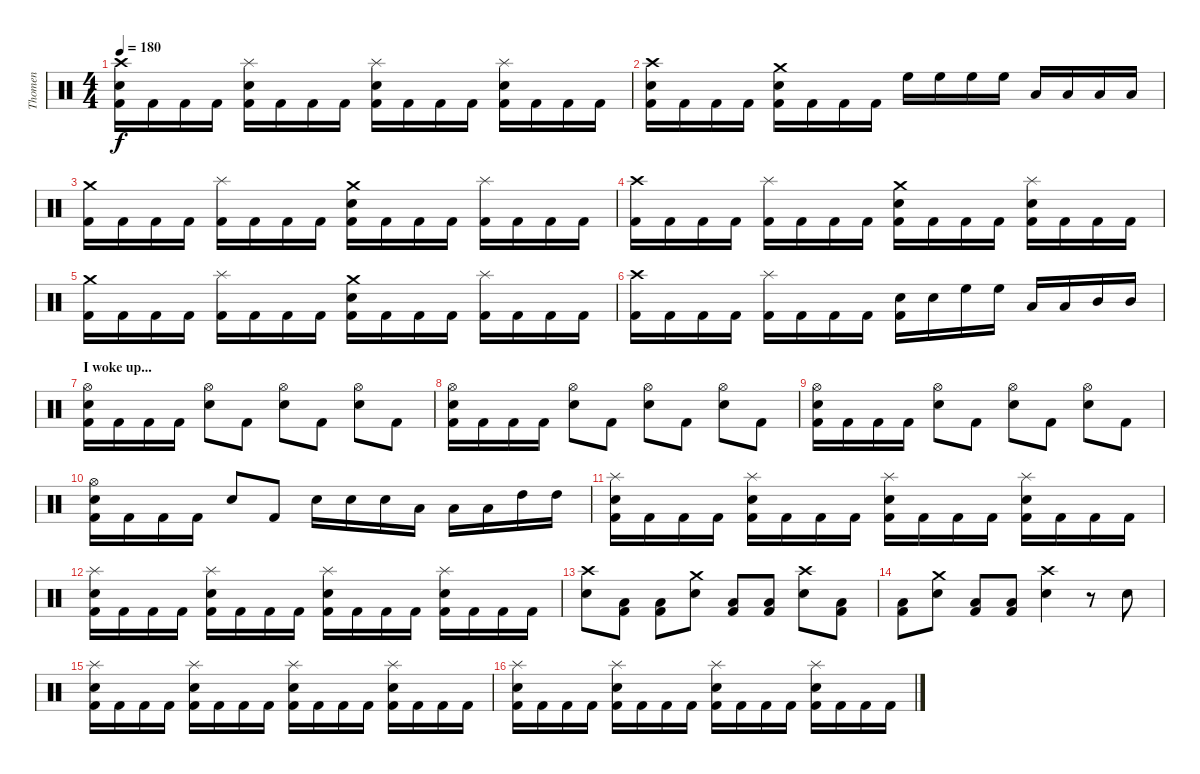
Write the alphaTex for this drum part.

\track ("Thomen" "Thomen") {instrument percussion}
\staff {score}
\articulation defaults
\ts (4 4)
\tempo 180
\clef neutral
\ks c
("Kick (hit) 2" "Electric Snare (hit)" "Crash high (hit)").16{dy f} "Kick (hit) 2".16 "Kick (hit) 2".16 "Kick (hit) 2".16 ("Kick (hit) 2" "Electric Snare (hit)" "Splash (hit)").16 "Kick (hit) 2".16 "Kick (hit) 2".16 "Kick (hit) 2".16 ("Kick (hit) 2" "Electric Snare (hit)" "Splash (hit)").16 "Kick (hit) 2".16 "Kick (hit) 2".16 "Kick (hit) 2".16 ("Kick (hit) 2" "Electric Snare (hit)" "Splash (hit)").16 "Kick (hit) 2".16 "Kick (hit) 2".16 "Kick (hit) 2".16 |
("Kick (hit) 2" "Electric Snare (hit)" "Crash high (hit)").16 "Kick (hit) 2".16 "Kick (hit) 2".16 "Kick (hit) 2".16 ("Kick (hit) 2" "Electric Snare (hit)" "Crash medium (hit)").16 "Kick (hit) 2".16 "Kick (hit) 2".16 "Kick (hit) 2".16 "High Floor Tom (hit)".16 "High Floor Tom (hit)".16 "High Floor Tom (hit)".16 "High Floor Tom (hit)".16 "Low Tom (hit)".16 "Low Tom (hit)".16 "Low Tom (hit)".16 "Low Tom (hit)".16 |
("Kick (hit) 2" "Crash medium (hit)").16 "Kick (hit) 2".16 "Kick (hit) 2".16 "Kick (hit) 2".16 ("Kick (hit) 2" "Splash (hit)").16 "Kick (hit) 2".16 "Kick (hit) 2".16 "Kick (hit) 2".16 ("Kick (hit) 2" "Electric Snare (hit)" "Crash medium (hit)").16 "Kick (hit) 2".16 "Kick (hit) 2".16 "Kick (hit) 2".16 ("Kick (hit) 2" "Splash (hit)").16 "Kick (hit) 2".16 "Kick (hit) 2".16 "Kick (hit) 2".16 |
("Kick (hit) 2" "Crash high (hit)").16 "Kick (hit) 2".16 "Kick (hit) 2".16 "Kick (hit) 2".16 ("Kick (hit) 2" "Splash (hit)").16 "Kick (hit) 2".16 "Kick (hit) 2".16 "Kick (hit) 2".16 ("Kick (hit) 2" "Electric Snare (hit)" "Crash medium (hit)").16 "Kick (hit) 2".16 "Kick (hit) 2".16 "Kick (hit) 2".16 ("Kick (hit) 2" "Electric Snare (hit)" "Splash (hit)").16 "Kick (hit) 2".16 "Kick (hit) 2".16 "Kick (hit) 2".16 |
("Kick (hit) 2" "Crash medium (hit)").16 "Kick (hit) 2".16 "Kick (hit) 2".16 "Kick (hit) 2".16 ("Kick (hit) 2" "Splash (hit)").16 "Kick (hit) 2".16 "Kick (hit) 2".16 "Kick (hit) 2".16 ("Kick (hit) 2" "Electric Snare (hit)" "Crash medium (hit)").16 "Kick (hit) 2".16 "Kick (hit) 2".16 "Kick (hit) 2".16 ("Kick (hit) 2" "Splash (hit)").16 "Kick (hit) 2".16 "Kick (hit) 2".16 "Kick (hit) 2".16 |
("Kick (hit) 2" "Crash high (hit)").16 "Kick (hit) 2".16 "Kick (hit) 2".16 "Kick (hit) 2".16 ("Kick (hit) 2" "Splash (hit)").16 "Kick (hit) 2".16 "Kick (hit) 2".16 "Kick (hit) 2".16 ("Kick (hit) 2" "Electric Snare (hit)").16 "Electric Snare (hit)".16 "High Floor Tom (hit)".16 "High Floor Tom (hit)".16 "Low Tom (hit)".16 "Low Tom (hit)".16 "Mid Tom (hit)".16 "Mid Tom (hit)".16 |
\section ("" "I woke up...")
("Kick (hit) 2" "Electric Snare (hit)" "Hi-Hat (open)").16 "Kick (hit) 2".16 "Kick (hit) 2".16 "Kick (hit) 2".16 ("Electric Snare (hit)" "Hi-Hat (open)").8 "Kick (hit) 2".8 ("Electric Snare (hit)" "Hi-Hat (open)").8 "Kick (hit) 2".8 ("Electric Snare (hit)" "Hi-Hat (open)").8 "Kick (hit) 2".8 |
("Kick (hit) 2" "Electric Snare (hit)" "Hi-Hat (open)").16 "Kick (hit) 2".16 "Kick (hit) 2".16 "Kick (hit) 2".16 ("Electric Snare (hit)" "Hi-Hat (open)").8 "Kick (hit) 2".8 ("Electric Snare (hit)" "Hi-Hat (open)").8 "Kick (hit) 2".8 ("Electric Snare (hit)" "Hi-Hat (open)").8 "Kick (hit) 2".8 |
("Kick (hit) 2" "Electric Snare (hit)" "Hi-Hat (open)").16 "Kick (hit) 2".16 "Kick (hit) 2".16 "Kick (hit) 2".16 ("Electric Snare (hit)" "Hi-Hat (open)").8 "Kick (hit) 2".8 ("Electric Snare (hit)" "Hi-Hat (open)").8 "Kick (hit) 2".8 ("Electric Snare (hit)" "Hi-Hat (open)").8 "Kick (hit) 2".8 |
("Kick (hit) 2" "Electric Snare (hit)" "Hi-Hat (open)").16 "Kick (hit) 2".16 "Kick (hit) 2".16 "Kick (hit) 2".16 "Electric Snare (hit)".8 "Kick (hit) 2".8 "Electric Snare (hit)".16 "Electric Snare (hit)".16 "Electric Snare (hit)".16 "Low Tom (hit)".16 "Low Tom (hit)".16 "Low Tom (hit)".16 "High Tom (hit)".16 "High Tom (hit)".16 |
("Kick (hit) 2" "Electric Snare (hit)" "Splash (hit)").16 "Kick (hit) 2".16 "Kick (hit) 2".16 "Kick (hit) 2".16 ("Kick (hit) 2" "Electric Snare (hit)" "Splash (hit)").16 "Kick (hit) 2".16 "Kick (hit) 2".16 "Kick (hit) 2".16 ("Kick (hit) 2" "Electric Snare (hit)" "Splash (hit)").16 "Kick (hit) 2".16 "Kick (hit) 2".16 "Kick (hit) 2".16 ("Kick (hit) 2" "Electric Snare (hit)" "Splash (hit)").16 "Kick (hit) 2".16 "Kick (hit) 2".16 "Kick (hit) 2".16 |
("Kick (hit) 2" "Electric Snare (hit)" "Splash (hit)").16 "Kick (hit) 2".16 "Kick (hit) 2".16 "Kick (hit) 2".16 ("Kick (hit) 2" "Electric Snare (hit)" "Splash (hit)").16 "Kick (hit) 2".16 "Kick (hit) 2".16 "Kick (hit) 2".16 ("Kick (hit) 2" "Electric Snare (hit)" "Splash (hit)").16 "Kick (hit) 2".16 "Kick (hit) 2".16 "Kick (hit) 2".16 ("Kick (hit) 2" "Electric Snare (hit)" "Splash (hit)").16 "Kick (hit) 2".16 "Kick (hit) 2".16 "Kick (hit) 2".16 |
("Electric Snare (hit)" "Crash high (hit)").8 ("Kick (hit) 2" "Low Tom (hit)").8 ("Kick (hit) 2" "Low Tom (hit)").8 ("Electric Snare (hit)" "Crash medium (hit)").8 ("Kick (hit) 2" "Low Tom (hit)").8 ("Kick (hit) 2" "Low Tom (hit)").8 ("Electric Snare (hit)" "Crash high (hit)").8 ("Kick (hit) 2" "Low Tom (hit)").8 |
("Kick (hit) 2" "Low Tom (hit)").8 ("Electric Snare (hit)" "Crash medium (hit)").8 ("Kick (hit) 2" "Low Tom (hit)").8 ("Kick (hit) 2" "Low Tom (hit)").8 ("Electric Snare (hit)" "Crash high (hit)").4 r.8 "Electric Snare (hit)".8 |
("Kick (hit) 2" "Electric Snare (hit)" "Splash (hit)").16 "Kick (hit) 2".16 "Kick (hit) 2".16 "Kick (hit) 2".16 ("Kick (hit) 2" "Electric Snare (hit)" "Splash (hit)").16 "Kick (hit) 2".16 "Kick (hit) 2".16 "Kick (hit) 2".16 ("Kick (hit) 2" "Electric Snare (hit)" "Splash (hit)").16 "Kick (hit) 2".16 "Kick (hit) 2".16 "Kick (hit) 2".16 ("Kick (hit) 2" "Electric Snare (hit)" "Splash (hit)").16 "Kick (hit) 2".16 "Kick (hit) 2".16 "Kick (hit) 2".16 |
("Kick (hit) 2" "Electric Snare (hit)" "Splash (hit)").16 "Kick (hit) 2".16 "Kick (hit) 2".16 "Kick (hit) 2".16 ("Kick (hit) 2" "Electric Snare (hit)" "Splash (hit)").16 "Kick (hit) 2".16 "Kick (hit) 2".16 "Kick (hit) 2".16 ("Kick (hit) 2" "Electric Snare (hit)" "Splash (hit)").16 "Kick (hit) 2".16 "Kick (hit) 2".16 "Kick (hit) 2".16 ("Kick (hit) 2" "Electric Snare (hit)" "Splash (hit)").16 "Kick (hit) 2".16 "Kick (hit) 2".16 "Kick (hit) 2".16
